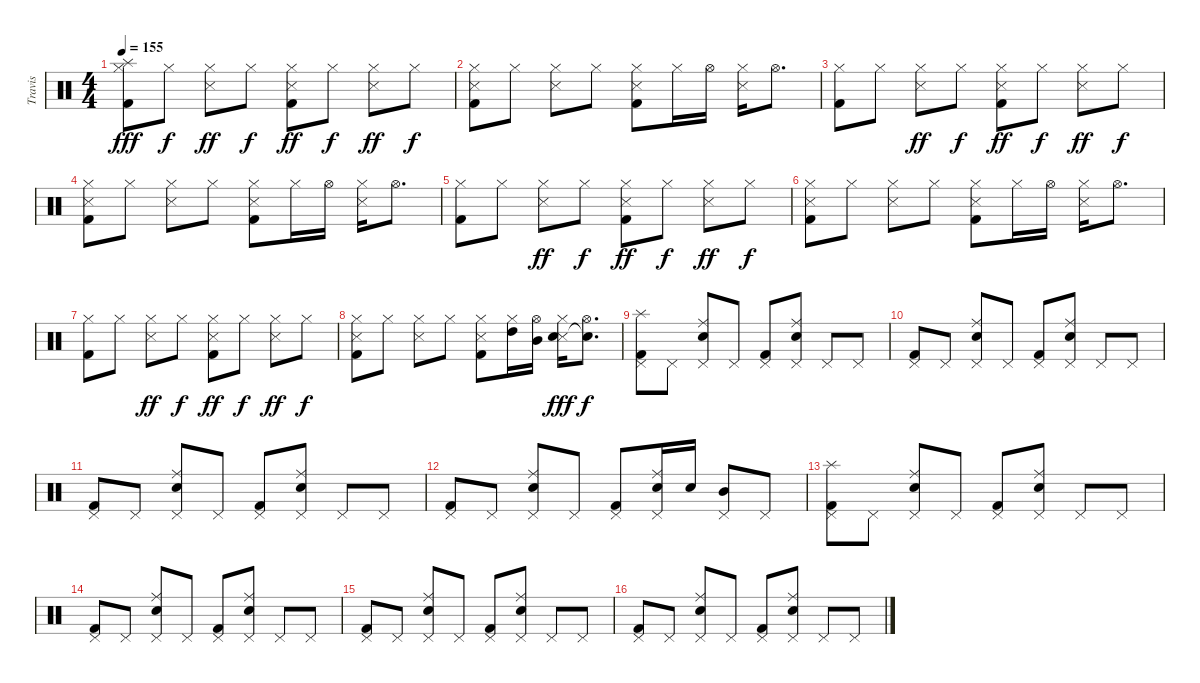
\track ("Travis" "Travis") {instrument percussion}
\staff {score}
\articulation defaults
\ts (4 4)
\tempo 155
\clef neutral
\ks c
("Splash (hit)" "Hi-Hat (closed)" "Kick (hit) 2").8{dy fff} "Hi-Hat (closed)".8{dy f} ("Hi-Hat (closed)" "Snare (side stick) 3").8{dy ff} "Hi-Hat (closed)".8{dy f} ("Hi-Hat (closed)" "Snare (side stick) 3" "Kick (hit) 2").8{dy ff} "Hi-Hat (closed)".8{dy f} ("Hi-Hat (closed)" "Snare (side stick) 3").8{dy ff} "Hi-Hat (closed)".8{dy f} |
("Hi-Hat (closed)" "Snare (side stick) 3" "Kick (hit) 2").8 "Hi-Hat (closed)".8 ("Hi-Hat (closed)" "Snare (side stick) 3").8 "Hi-Hat (closed)".8 ("Hi-Hat (closed)" "Snare (side stick) 3" "Kick (hit) 2").8 "Hi-Hat (closed)".16 "Hi-Hat (open)".16 ("Hi-Hat (closed)" "Snare (side stick) 3").16 "Hi-Hat (open)".8{d} |
("Hi-Hat (closed)" "Kick (hit) 2").8 "Hi-Hat (closed)".8 ("Hi-Hat (closed)" "Snare (side stick) 3").8{dy ff} "Hi-Hat (closed)".8{dy f} ("Hi-Hat (closed)" "Snare (side stick) 3" "Kick (hit) 2").8{dy ff} "Hi-Hat (closed)".8{dy f} ("Hi-Hat (closed)" "Snare (side stick) 3").8{dy ff} "Hi-Hat (closed)".8{dy f} |
("Hi-Hat (closed)" "Snare (side stick) 3" "Kick (hit) 2").8 "Hi-Hat (closed)".8 ("Hi-Hat (closed)" "Snare (side stick) 3").8 "Hi-Hat (closed)".8 ("Hi-Hat (closed)" "Snare (side stick) 3" "Kick (hit) 2").8 "Hi-Hat (closed)".16 "Hi-Hat (open)".16 ("Hi-Hat (closed)" "Snare (side stick) 3").16 "Hi-Hat (open)".8{d} |
("Hi-Hat (closed)" "Kick (hit) 2").8 "Hi-Hat (closed)".8 ("Hi-Hat (closed)" "Snare (side stick) 3").8{dy ff} "Hi-Hat (closed)".8{dy f} ("Hi-Hat (closed)" "Snare (side stick) 3" "Kick (hit) 2").8{dy ff} "Hi-Hat (closed)".8{dy f} ("Hi-Hat (closed)" "Snare (side stick) 3").8{dy ff} "Hi-Hat (closed)".8{dy f} |
("Hi-Hat (closed)" "Snare (side stick) 3" "Kick (hit) 2").8 "Hi-Hat (closed)".8 ("Hi-Hat (closed)" "Snare (side stick) 3").8 "Hi-Hat (closed)".8 ("Hi-Hat (closed)" "Snare (side stick) 3" "Kick (hit) 2").8 "Hi-Hat (closed)".16 "Hi-Hat (open)".16 ("Hi-Hat (closed)" "Snare (side stick) 3").16 "Hi-Hat (open)".8{d} |
("Hi-Hat (closed)" "Kick (hit) 2").8 "Hi-Hat (closed)".8 ("Hi-Hat (closed)" "Snare (side stick) 3").8{dy ff} "Hi-Hat (closed)".8{dy f} ("Hi-Hat (closed)" "Snare (side stick) 3" "Kick (hit) 2").8{dy ff} "Hi-Hat (closed)".8{dy f} ("Hi-Hat (closed)" "Snare (side stick) 3").8{dy ff} "Hi-Hat (closed)".8{dy f} |
("Snare (side stick) 3" "Hi-Hat (closed)" "Kick (hit) 2").8 "Hi-Hat (closed)".8 ("Snare (side stick) 3" "Hi-Hat (closed)").8 "Hi-Hat (closed)".8 ("Snare (side stick) 3" "Hi-Hat (closed)" "Kick (hit) 2").8 ("Hi-Hat (closed)" "High Tom (hit)").16 ("Hi-Hat (open)" "Mid Tom (hit)").16 ("Snare (side stick) 3" "Hi-Hat (closed)" "Electric Snare (hit)").16{dy fff} ("Snare (hit)"{t} "Hi-Hat (open)").8{d dy f} |
("Splash (hit)" "Pedal Hi-Hat (hit)" "Kick (hit) 2").8 "Pedal Hi-Hat (hit)".8 ("Electric Snare (hit)" "Pedal Hi-Hat (hit)" "Ride (middle)").8 "Pedal Hi-Hat (hit)".8 ("Pedal Hi-Hat (hit)" "Kick (hit) 2").8 ("Electric Snare (hit)" "Pedal Hi-Hat (hit)" "Ride (middle)").8 "Pedal Hi-Hat (hit)".8 "Pedal Hi-Hat (hit)".8 |
("Pedal Hi-Hat (hit)" "Kick (hit) 2").8 "Pedal Hi-Hat (hit)".8 ("Electric Snare (hit)" "Pedal Hi-Hat (hit)" "Ride (middle)").8 "Pedal Hi-Hat (hit)".8 ("Pedal Hi-Hat (hit)" "Kick (hit) 2").8 ("Electric Snare (hit)" "Pedal Hi-Hat (hit)" "Ride (middle)").8 "Pedal Hi-Hat (hit)".8 "Pedal Hi-Hat (hit)".8 |
("Pedal Hi-Hat (hit)" "Kick (hit) 2").8 "Pedal Hi-Hat (hit)".8 ("Electric Snare (hit)" "Pedal Hi-Hat (hit)" "Ride (middle)").8 "Pedal Hi-Hat (hit)".8 ("Pedal Hi-Hat (hit)" "Kick (hit) 2").8 ("Electric Snare (hit)" "Pedal Hi-Hat (hit)" "Ride (middle)").8 "Pedal Hi-Hat (hit)".8 "Pedal Hi-Hat (hit)".8 |
("Pedal Hi-Hat (hit)" "Kick (hit) 2").8 "Pedal Hi-Hat (hit)".8 ("Electric Snare (hit)" "Pedal Hi-Hat (hit)" "Ride (middle)").8 "Pedal Hi-Hat (hit)".8 ("Pedal Hi-Hat (hit)" "Kick (hit) 2").8 ("Electric Snare (hit)" "Pedal Hi-Hat (hit)" "Ride (middle)").16 "Electric Snare (hit)".16 ("Mid Tom (hit)" "Pedal Hi-Hat (hit)").8 "Pedal Hi-Hat (hit)".8 |
("Splash (hit)" "Pedal Hi-Hat (hit)" "Kick (hit) 2").8 "Pedal Hi-Hat (hit)".8 ("Electric Snare (hit)" "Pedal Hi-Hat (hit)" "Ride (middle)").8 "Pedal Hi-Hat (hit)".8 ("Pedal Hi-Hat (hit)" "Kick (hit) 2").8 ("Electric Snare (hit)" "Pedal Hi-Hat (hit)" "Ride (middle)").8 "Pedal Hi-Hat (hit)".8 "Pedal Hi-Hat (hit)".8 |
("Pedal Hi-Hat (hit)" "Kick (hit) 2").8 "Pedal Hi-Hat (hit)".8 ("Electric Snare (hit)" "Pedal Hi-Hat (hit)" "Ride (middle)").8 "Pedal Hi-Hat (hit)".8 ("Pedal Hi-Hat (hit)" "Kick (hit) 2").8 ("Electric Snare (hit)" "Pedal Hi-Hat (hit)" "Ride (middle)").8 "Pedal Hi-Hat (hit)".8 "Pedal Hi-Hat (hit)".8 |
("Pedal Hi-Hat (hit)" "Kick (hit) 2").8 "Pedal Hi-Hat (hit)".8 ("Electric Snare (hit)" "Pedal Hi-Hat (hit)" "Ride (middle)").8 "Pedal Hi-Hat (hit)".8 ("Pedal Hi-Hat (hit)" "Kick (hit) 2").8 ("Electric Snare (hit)" "Pedal Hi-Hat (hit)" "Ride (middle)").8 "Pedal Hi-Hat (hit)".8 "Pedal Hi-Hat (hit)".8 |
("Pedal Hi-Hat (hit)" "Kick (hit) 2").8 "Pedal Hi-Hat (hit)".8 ("Electric Snare (hit)" "Pedal Hi-Hat (hit)" "Ride (middle)").8 "Pedal Hi-Hat (hit)".8 ("Pedal Hi-Hat (hit)" "Kick (hit) 2").8 ("Electric Snare (hit)" "Pedal Hi-Hat (hit)" "Ride (middle)").8 "Pedal Hi-Hat (hit)".8 "Pedal Hi-Hat (hit)".8
